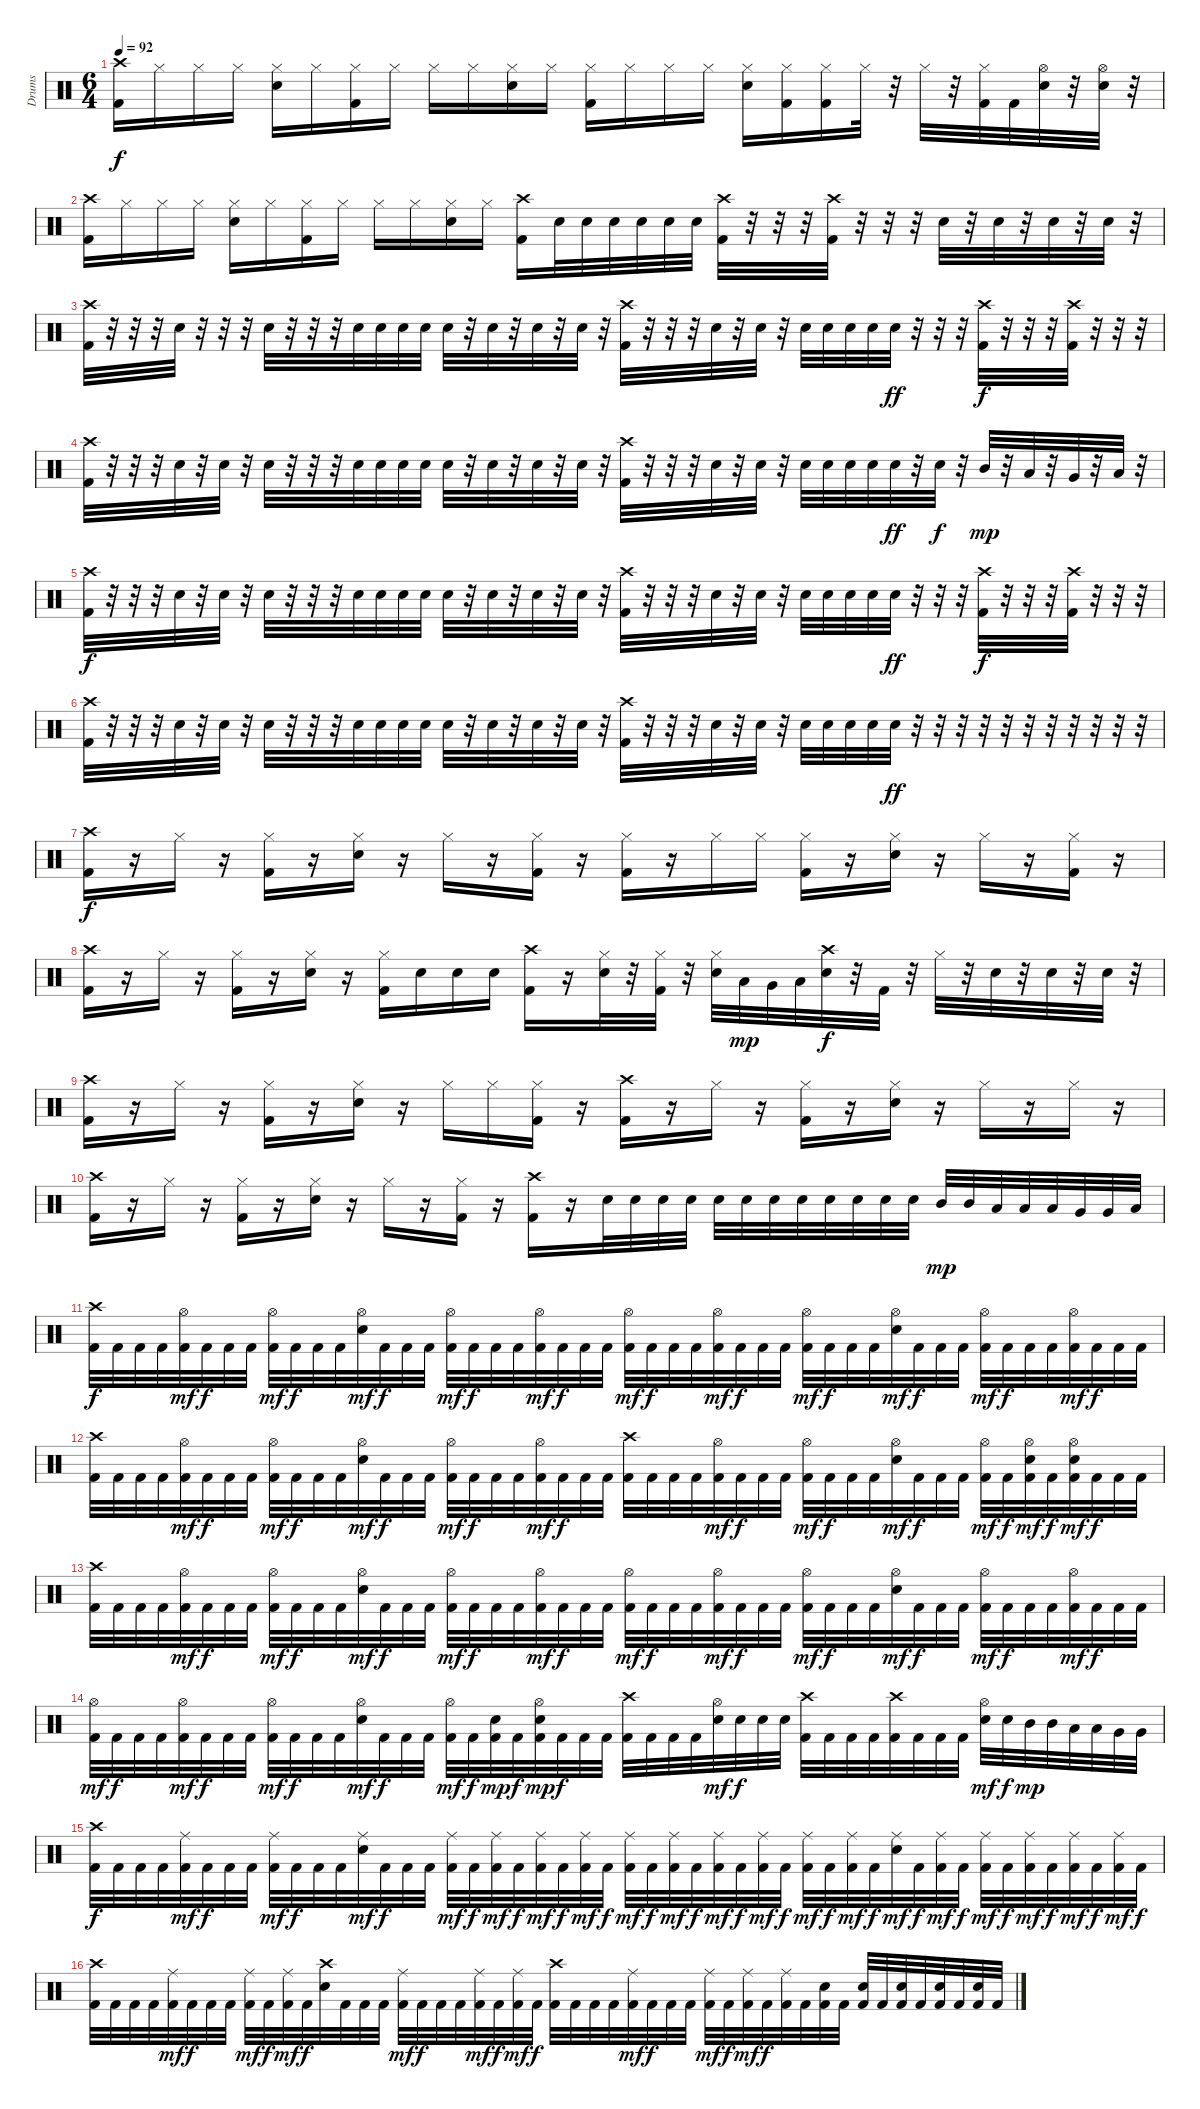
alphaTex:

\track ("Drums" "Drums") {instrument percussion}
\staff {score}
\articulation defaults
\ts (6 4)
\tempo 92
\clef neutral
\ks c
("Crash high (hit)" "Kick (hit) 2").16{dy f} "Hi-Hat (closed)".16 "Hi-Hat (closed)".16 "Hi-Hat (closed)".16 ("Hi-Hat (closed)" "Electric Snare (hit)").16 "Hi-Hat (closed)".16 ("Hi-Hat (closed)" "Kick (hit) 2").16 "Hi-Hat (closed)".16 "Hi-Hat (closed)".16 "Hi-Hat (closed)".16 ("Hi-Hat (closed)" "Electric Snare (hit)").16 "Hi-Hat (closed)".16 ("Hi-Hat (closed)" "Kick (hit) 2").16 "Hi-Hat (closed)".16 "Hi-Hat (closed)".16 "Hi-Hat (closed)".16 ("Hi-Hat (closed)" "Electric Snare (hit)").16 ("Hi-Hat (closed)" "Kick (hit) 2").16 ("Hi-Hat (closed)" "Kick (hit) 2").16 "Hi-Hat (closed)".32 r.32 "Hi-Hat (closed)".32 r.32 ("Hi-Hat (closed)" "Kick (hit) 2").32 "Kick (hit) 2".32 ("Hi-Hat (open)" "Electric Snare (hit)").32 r.32 ("Hi-Hat (open)" "Electric Snare (hit)").32 r.32 |
("Crash high (hit)" "Kick (hit) 2").16 "Hi-Hat (closed)".16 "Hi-Hat (closed)".16 "Hi-Hat (closed)".16 ("Hi-Hat (closed)" "Electric Snare (hit)").16 "Hi-Hat (closed)".16 ("Hi-Hat (closed)" "Kick (hit) 2").16 "Hi-Hat (closed)".16 "Hi-Hat (closed)".16 "Hi-Hat (closed)".16 ("Hi-Hat (closed)" "Electric Snare (hit)").16 "Hi-Hat (closed)".16 ("Crash high (hit)" "Kick (hit) 2").16 "Electric Snare (hit)".32 "Electric Snare (hit)".32 "Electric Snare (hit)".32 "Electric Snare (hit)".32 "Electric Snare (hit)".32 "Electric Snare (hit)".32 ("Crash high (hit)" "Kick (hit) 2").32 r.32 r.32 r.32 ("Crash high (hit)" "Kick (hit) 2").32 r.32 r.32 r.32 "Electric Snare (hit)".32 r.32 "Electric Snare (hit)".32 r.32 "Electric Snare (hit)".32 r.32 "Electric Snare (hit)".32 r.32 |
("Crash high (hit)" "Kick (hit) 2").32 r.32 r.32 r.32 "Electric Snare (hit)".32 r.32 r.32 r.32 "Electric Snare (hit)".32 r.32 r.32 r.32 "Electric Snare (hit)".32 "Electric Snare (hit)".32 "Electric Snare (hit)".32 "Electric Snare (hit)".32 "Electric Snare (hit)".32 r.32 "Electric Snare (hit)".32 r.32 "Electric Snare (hit)".32 r.32 "Electric Snare (hit)".32 r.32 ("Crash high (hit)" "Kick (hit) 2").32 r.32 r.32 r.32 "Electric Snare (hit)".32 r.32 "Electric Snare (hit)".32 r.32 "Electric Snare (hit)".32 "Electric Snare (hit)".32 "Electric Snare (hit)".32 "Electric Snare (hit)".32 "Electric Snare (hit)".32{dy ff} r.32 r.32 r.32 ("Crash high (hit)" "Kick (hit) 2").32{dy f} r.32 r.32 r.32 ("Crash high (hit)" "Kick (hit) 2").32 r.32 r.32 r.32 |
("Crash high (hit)" "Kick (hit) 2").32 r.32 r.32 r.32 "Electric Snare (hit)".32 r.32 "Electric Snare (hit)".32 r.32 "Electric Snare (hit)".32 r.32 r.32 r.32 "Electric Snare (hit)".32 "Electric Snare (hit)".32 "Electric Snare (hit)".32 "Electric Snare (hit)".32 "Electric Snare (hit)".32 r.32 "Electric Snare (hit)".32 r.32 "Electric Snare (hit)".32 r.32 "Electric Snare (hit)".32 r.32 ("Crash high (hit)" "Kick (hit) 2").32 r.32 r.32 r.32 "Electric Snare (hit)".32 r.32 "Electric Snare (hit)".32 r.32 "Electric Snare (hit)".32 "Electric Snare (hit)".32 "Electric Snare (hit)".32 "Electric Snare (hit)".32 "Electric Snare (hit)".32{dy ff} r.32 "Electric Snare (hit)".32{dy f} r.32 "Mid Tom (hit)".32{dy mp} r.32 "Low Tom (hit)".32 r.32 "Very Low Tom (hit)".32 r.32 "Low Floor Tom (hit)".32 r.32 |
("Crash high (hit)" "Kick (hit) 2").32{dy f} r.32 r.32 r.32 "Electric Snare (hit)".32 r.32 "Electric Snare (hit)".32 r.32 "Electric Snare (hit)".32 r.32 r.32 r.32 "Electric Snare (hit)".32 "Electric Snare (hit)".32 "Electric Snare (hit)".32 "Electric Snare (hit)".32 "Electric Snare (hit)".32 r.32 "Electric Snare (hit)".32 r.32 "Electric Snare (hit)".32 r.32 "Electric Snare (hit)".32 r.32 ("Crash high (hit)" "Kick (hit) 2").32 r.32 r.32 r.32 "Electric Snare (hit)".32 r.32 "Electric Snare (hit)".32 r.32 "Electric Snare (hit)".32 "Electric Snare (hit)".32 "Electric Snare (hit)".32 "Electric Snare (hit)".32 "Electric Snare (hit)".32{dy ff} r.32 r.32 r.32 ("Crash high (hit)" "Kick (hit) 2").32{dy f} r.32 r.32 r.32 ("Crash high (hit)" "Kick (hit) 2").32 r.32 r.32 r.32 |
("Crash high (hit)" "Kick (hit) 2").32 r.32 r.32 r.32 "Electric Snare (hit)".32 r.32 "Electric Snare (hit)".32 r.32 "Electric Snare (hit)".32 r.32 r.32 r.32 "Electric Snare (hit)".32 "Electric Snare (hit)".32 "Electric Snare (hit)".32 "Electric Snare (hit)".32 "Electric Snare (hit)".32 r.32 "Electric Snare (hit)".32 r.32 "Electric Snare (hit)".32 r.32 "Electric Snare (hit)".32 r.32 ("Crash high (hit)" "Kick (hit) 2").32 r.32 r.32 r.32 "Electric Snare (hit)".32 r.32 "Electric Snare (hit)".32 r.32 "Electric Snare (hit)".32 "Electric Snare (hit)".32 "Electric Snare (hit)".32 "Electric Snare (hit)".32 "Electric Snare (hit)".32{dy ff} r.32 r.32 r.32 r.32 r.32 r.32 r.32 r.32 r.32 r.32 r.32 |
("Crash high (hit)" "Kick (hit) 2").16{dy f} r.16 "Hi-Hat (closed)".16 r.16 ("Hi-Hat (closed)" "Kick (hit) 2").16 r.16 ("Hi-Hat (closed)" "Electric Snare (hit)").16 r.16 "Hi-Hat (closed)".16 r.16 ("Hi-Hat (closed)" "Kick (hit) 2").16 r.16 ("Hi-Hat (closed)" "Kick (hit) 2").16 r.16 "Hi-Hat (closed)".16 "Hi-Hat (closed)".16 ("Hi-Hat (closed)" "Kick (hit) 2").16 r.16 ("Hi-Hat (closed)" "Electric Snare (hit)").16 r.16 "Hi-Hat (closed)".16 r.16 ("Hi-Hat (closed)" "Kick (hit) 2").16 r.16 |
("Crash high (hit)" "Kick (hit) 2").16 r.16 "Hi-Hat (closed)".16 r.16 ("Hi-Hat (closed)" "Kick (hit) 2").16 r.16 ("Hi-Hat (closed)" "Electric Snare (hit)").16 r.16 ("Hi-Hat (closed)" "Kick (hit) 2").16 "Electric Snare (hit)".16 "Electric Snare (hit)".16 "Electric Snare (hit)".16 ("Crash high (hit)" "Kick (hit) 2").16 r.16 ("Hi-Hat (closed)" "Electric Snare (hit)").32 r.32 ("Hi-Hat (closed)" "Kick (hit) 2").32 r.32 ("Hi-Hat (closed)" "Electric Snare (hit)").32 "Low Tom (hit)".32{dy mp} "Very Low Tom (hit)".32 "Low Floor Tom (hit)".32 ("Crash high (hit)" "Electric Snare (hit)").32{dy f} r.32 "Kick (hit) 2".32 r.32 "Hi-Hat (closed)".32 r.32 "Electric Snare (hit)".32 r.32 "Electric Snare (hit)".32 r.32 "Electric Snare (hit)".32 r.32 |
("Crash high (hit)" "Kick (hit) 2").16 r.16 "Hi-Hat (closed)".16 r.16 ("Hi-Hat (closed)" "Kick (hit) 2").16 r.16 ("Hi-Hat (closed)" "Electric Snare (hit)").16 r.16 "Hi-Hat (closed)".16 "Hi-Hat (closed)".16 ("Hi-Hat (closed)" "Kick (hit) 2").16 r.16 ("Crash high (hit)" "Kick (hit) 2").16 r.16 "Hi-Hat (closed)".16 r.16 ("Hi-Hat (closed)" "Kick (hit) 2").16 r.16 ("Hi-Hat (closed)" "Electric Snare (hit)").16 r.16 "Hi-Hat (closed)".16 r.16 "Hi-Hat (closed)".16 r.16 |
("Crash high (hit)" "Kick (hit) 2").16 r.16 "Hi-Hat (closed)".16 r.16 ("Hi-Hat (closed)" "Kick (hit) 2").16 r.16 ("Hi-Hat (closed)" "Electric Snare (hit)").16 r.16 "Hi-Hat (closed)".16 r.16 ("Hi-Hat (closed)" "Kick (hit) 2").16 r.16 ("Crash high (hit)" "Kick (hit) 2").16 r.16 "Electric Snare (hit)".32 "Electric Snare (hit)".32 "Electric Snare (hit)".32 "Electric Snare (hit)".32 "Electric Snare (hit)".32 "Electric Snare (hit)".32 "Electric Snare (hit)".32 "Electric Snare (hit)".32 "Electric Snare (hit)".32 "Electric Snare (hit)".32 "Electric Snare (hit)".32 "Electric Snare (hit)".32 "Mid Tom (hit)".32{dy mp} "Mid Tom (hit)".32 "Low Tom (hit)".32 "Low Tom (hit)".32 "Low Tom (hit)".32 "Very Low Tom (hit)".32 "Very Low Tom (hit)".32 "Low Floor Tom (hit)".32 |
("Crash high (hit)" "Kick (hit) 2").32{dy f} "Kick (hit) 2".32 "Kick (hit) 2".32 "Kick (hit) 2".32 ("Hi-Hat (open)" "Kick (hit) 2").32{dy mf} "Kick (hit) 2".32{dy f} "Kick (hit) 2".32 "Kick (hit) 2".32 ("Hi-Hat (open)" "Kick (hit) 2").32{dy mf} "Kick (hit) 2".32{dy f} "Kick (hit) 2".32 "Kick (hit) 2".32 ("Hi-Hat (open)" "Electric Snare (hit)").32{dy mf} "Kick (hit) 2".32{dy f} "Kick (hit) 2".32 "Kick (hit) 2".32 ("Hi-Hat (open)" "Kick (hit) 2").32{dy mf} "Kick (hit) 2".32{dy f} "Kick (hit) 2".32 "Kick (hit) 2".32 ("Hi-Hat (open)" "Kick (hit) 2").32{dy mf} "Kick (hit) 2".32{dy f} "Kick (hit) 2".32 "Kick (hit) 2".32 ("Hi-Hat (open)" "Kick (hit) 2").32{dy mf} "Kick (hit) 2".32{dy f} "Kick (hit) 2".32 "Kick (hit) 2".32 ("Hi-Hat (open)" "Kick (hit) 2").32{dy mf} "Kick (hit) 2".32{dy f} "Kick (hit) 2".32 "Kick (hit) 2".32 ("Hi-Hat (open)" "Kick (hit) 2").32{dy mf} "Kick (hit) 2".32{dy f} "Kick (hit) 2".32 "Kick (hit) 2".32 ("Hi-Hat (open)" "Electric Snare (hit)").32{dy mf} "Kick (hit) 2".32{dy f} "Kick (hit) 2".32 "Kick (hit) 2".32 ("Hi-Hat (open)" "Kick (hit) 2").32{dy mf} "Kick (hit) 2".32{dy f} "Kick (hit) 2".32 "Kick (hit) 2".32 ("Hi-Hat (open)" "Kick (hit) 2").32{dy mf} "Kick (hit) 2".32{dy f} "Kick (hit) 2".32 "Kick (hit) 2".32 |
("Crash high (hit)" "Kick (hit) 2").32 "Kick (hit) 2".32 "Kick (hit) 2".32 "Kick (hit) 2".32 ("Hi-Hat (open)" "Kick (hit) 2").32{dy mf} "Kick (hit) 2".32{dy f} "Kick (hit) 2".32 "Kick (hit) 2".32 ("Hi-Hat (open)" "Kick (hit) 2").32{dy mf} "Kick (hit) 2".32{dy f} "Kick (hit) 2".32 "Kick (hit) 2".32 ("Hi-Hat (open)" "Electric Snare (hit)").32{dy mf} "Kick (hit) 2".32{dy f} "Kick (hit) 2".32 "Kick (hit) 2".32 ("Hi-Hat (open)" "Kick (hit) 2").32{dy mf} "Kick (hit) 2".32{dy f} "Kick (hit) 2".32 "Kick (hit) 2".32 ("Hi-Hat (open)" "Kick (hit) 2").32{dy mf} "Kick (hit) 2".32{dy f} "Kick (hit) 2".32 "Kick (hit) 2".32 ("Crash high (hit)" "Kick (hit) 2").32 "Kick (hit) 2".32 "Kick (hit) 2".32 "Kick (hit) 2".32 ("Hi-Hat (open)" "Kick (hit) 2").32{dy mf} "Kick (hit) 2".32{dy f} "Kick (hit) 2".32 "Kick (hit) 2".32 ("Hi-Hat (open)" "Kick (hit) 2").32{dy mf} "Kick (hit) 2".32{dy f} "Kick (hit) 2".32 "Kick (hit) 2".32 ("Hi-Hat (open)" "Electric Snare (hit)").32{dy mf} "Kick (hit) 2".32{dy f} "Kick (hit) 2".32 "Kick (hit) 2".32 ("Hi-Hat (open)" "Kick (hit) 2").32{dy mf} "Kick (hit) 2".32{dy f} ("Hi-Hat (open)" "Electric Snare (hit)" "Kick (hit) 2").32{dy mf} "Kick (hit) 2".32{dy f} ("Hi-Hat (open)" "Electric Snare (hit)" "Kick (hit) 2").32{dy mf} "Kick (hit) 2".32{dy f} "Kick (hit) 2".32 "Kick (hit) 2".32 |
("Crash high (hit)" "Kick (hit) 2").32 "Kick (hit) 2".32 "Kick (hit) 2".32 "Kick (hit) 2".32 ("Hi-Hat (open)" "Kick (hit) 2").32{dy mf} "Kick (hit) 2".32{dy f} "Kick (hit) 2".32 "Kick (hit) 2".32 ("Hi-Hat (open)" "Kick (hit) 2").32{dy mf} "Kick (hit) 2".32{dy f} "Kick (hit) 2".32 "Kick (hit) 2".32 ("Hi-Hat (open)" "Electric Snare (hit)").32{dy mf} "Kick (hit) 2".32{dy f} "Kick (hit) 2".32 "Kick (hit) 2".32 ("Hi-Hat (open)" "Kick (hit) 2").32{dy mf} "Kick (hit) 2".32{dy f} "Kick (hit) 2".32 "Kick (hit) 2".32 ("Hi-Hat (open)" "Kick (hit) 2").32{dy mf} "Kick (hit) 2".32{dy f} "Kick (hit) 2".32 "Kick (hit) 2".32 ("Hi-Hat (open)" "Kick (hit) 2").32{dy mf} "Kick (hit) 2".32{dy f} "Kick (hit) 2".32 "Kick (hit) 2".32 ("Hi-Hat (open)" "Kick (hit) 2").32{dy mf} "Kick (hit) 2".32{dy f} "Kick (hit) 2".32 "Kick (hit) 2".32 ("Hi-Hat (open)" "Kick (hit) 2").32{dy mf} "Kick (hit) 2".32{dy f} "Kick (hit) 2".32 "Kick (hit) 2".32 ("Hi-Hat (open)" "Electric Snare (hit)").32{dy mf} "Kick (hit) 2".32{dy f} "Kick (hit) 2".32 "Kick (hit) 2".32 ("Hi-Hat (open)" "Kick (hit) 2").32{dy mf} "Kick (hit) 2".32{dy f} "Kick (hit) 2".32 "Kick (hit) 2".32 ("Hi-Hat (open)" "Kick (hit) 2").32{dy mf} "Kick (hit) 2".32{dy f} "Kick (hit) 2".32 "Kick (hit) 2".32 |
("Hi-Hat (open)" "Kick (hit) 2").32{dy mf} "Kick (hit) 2".32{dy f} "Kick (hit) 2".32 "Kick (hit) 2".32 ("Hi-Hat (open)" "Kick (hit) 2").32{dy mf} "Kick (hit) 2".32{dy f} "Kick (hit) 2".32 "Kick (hit) 2".32 ("Hi-Hat (open)" "Kick (hit) 2").32{dy mf} "Kick (hit) 2".32{dy f} "Kick (hit) 2".32 "Kick (hit) 2".32 ("Hi-Hat (open)" "Electric Snare (hit)").32{dy mf} "Kick (hit) 2".32{dy f} "Kick (hit) 2".32 "Kick (hit) 2".32 ("Hi-Hat (open)" "Kick (hit) 2").32{dy mf} "Kick (hit) 2".32{dy f} ("Electric Snare (hit)" "Kick (hit) 2").32{dy mp} "Kick (hit) 2".32{dy f} ("Hi-Hat (open)" "Electric Snare (hit)" "Kick (hit) 2").32{dy mp} "Kick (hit) 2".32{dy f} "Kick (hit) 2".32 "Kick (hit) 2".32 ("Crash high (hit)" "Kick (hit) 2").32 "Kick (hit) 2".32 "Kick (hit) 2".32 "Kick (hit) 2".32 ("Hi-Hat (open)" "Electric Snare (hit)").32{dy mf} "Electric Snare (hit)".32{dy f} "Electric Snare (hit)".32 "Electric Snare (hit)".32 ("Crash high (hit)" "Kick (hit) 2").32 "Kick (hit) 2".32 "Kick (hit) 2".32 "Kick (hit) 2".32 ("Crash high (hit)" "Kick (hit) 2").32 "Kick (hit) 2".32 "Kick (hit) 2".32 "Kick (hit) 2".32 ("Hi-Hat (open)" "Electric Snare (hit)").32{dy mf} "Electric Snare (hit)".32{dy f} "Mid Tom (hit)".32{dy mp} "Mid Tom (hit)".32 "Low Tom (hit)".32 "Low Tom (hit)".32 "Very Low Tom (hit)".32 "Very Low Tom (hit)".32 |
("Crash high (hit)" "Kick (hit) 2").32{dy f} "Kick (hit) 2".32 "Kick (hit) 2".32 "Kick (hit) 2".32 ("Ride (middle)" "Kick (hit) 2").32{dy mf} "Kick (hit) 2".32{dy f} "Kick (hit) 2".32 "Kick (hit) 2".32 ("Ride (middle)" "Kick (hit) 2").32{dy mf} "Kick (hit) 2".32{dy f} "Kick (hit) 2".32 "Kick (hit) 2".32 ("Ride (middle)" "Electric Snare (hit)").32{dy mf} "Kick (hit) 2".32{dy f} "Kick (hit) 2".32 "Kick (hit) 2".32 ("Ride (middle)" "Kick (hit) 2").32{dy mf} "Kick (hit) 2".32{dy f} ("Ride (middle)" "Kick (hit) 2").32{dy mf} "Kick (hit) 2".32{dy f} ("Ride (middle)" "Kick (hit) 2").32{dy mf} "Kick (hit) 2".32{dy f} ("Ride (middle)" "Kick (hit) 2").32{dy mf} "Kick (hit) 2".32{dy f} ("Ride (middle)" "Kick (hit) 2").32{dy mf} "Kick (hit) 2".32{dy f} ("Ride (middle)" "Kick (hit) 2").32{dy mf} "Kick (hit) 2".32{dy f} ("Ride (middle)" "Kick (hit) 2").32{dy mf} "Kick (hit) 2".32{dy f} ("Ride (middle)" "Kick (hit) 2").32{dy mf} "Kick (hit) 2".32{dy f} ("Ride (middle)" "Kick (hit) 2").32{dy mf} "Kick (hit) 2".32{dy f} ("Ride (middle)" "Kick (hit) 2").32{dy mf} "Kick (hit) 2".32{dy f} ("Ride (middle)" "Electric Snare (hit)").32{dy mf} "Kick (hit) 2".32{dy f} ("Ride (middle)" "Kick (hit) 2").32{dy mf} "Kick (hit) 2".32{dy f} ("Ride (middle)" "Kick (hit) 2").32{dy mf} "Kick (hit) 2".32{dy f} ("Ride (middle)" "Kick (hit) 2").32{dy mf} "Kick (hit) 2".32{dy f} ("Ride (middle)" "Kick (hit) 2").32{dy mf} "Kick (hit) 2".32{dy f} ("Ride (middle)" "Kick (hit) 2").32{dy mf} "Kick (hit) 2".32{dy f} |
("Crash high (hit)" "Kick (hit) 2").32 "Kick (hit) 2".32 "Kick (hit) 2".32 "Kick (hit) 2".32 ("Ride (middle)" "Kick (hit) 2").32{dy mf} "Kick (hit) 2".32{dy f} "Kick (hit) 2".32 "Kick (hit) 2".32 ("Ride (middle)" "Kick (hit) 2").32{dy mf} "Kick (hit) 2".32{dy f} ("Ride (middle)" "Kick (hit) 2").32{dy mf} "Kick (hit) 2".32{dy f} ("Crash high (hit)" "Electric Snare (hit)").32 "Kick (hit) 2".32 "Kick (hit) 2".32 "Kick (hit) 2".32 ("Ride (middle)" "Kick (hit) 2").32{dy mf} "Kick (hit) 2".32{dy f} "Kick (hit) 2".32 "Kick (hit) 2".32 ("Ride (middle)" "Kick (hit) 2").32{dy mf} "Kick (hit) 2".32{dy f} ("Ride (middle)" "Kick (hit) 2").32{dy mf} "Kick (hit) 2".32{dy f} ("Crash high (hit)" "Kick (hit) 2").32 "Kick (hit) 2".32 "Kick (hit) 2".32 "Kick (hit) 2".32 ("Ride (middle)" "Kick (hit) 2").32{dy mf} "Kick (hit) 2".32{dy f} "Kick (hit) 2".32 "Kick (hit) 2".32 ("Ride (middle)" "Kick (hit) 2").32{dy mf} "Kick (hit) 2".32{dy f} ("Ride (middle)" "Kick (hit) 2").32{dy mf} "Kick (hit) 2".32{dy f} ("Ride (middle)" "Kick (hit) 2").32 "Kick (hit) 2".32 ("Electric Snare (hit)" "Kick (hit) 2").32 "Kick (hit) 2".32 ("Electric Snare (hit)" "Kick (hit) 2").32 "Kick (hit) 2".32 ("Electric Snare (hit)" "Kick (hit) 2").32 "Kick (hit) 2".32 ("Electric Snare (hit)" "Kick (hit) 2").32 "Kick (hit) 2".32 ("Electric Snare (hit)" "Kick (hit) 2").32 "Kick (hit) 2".32
